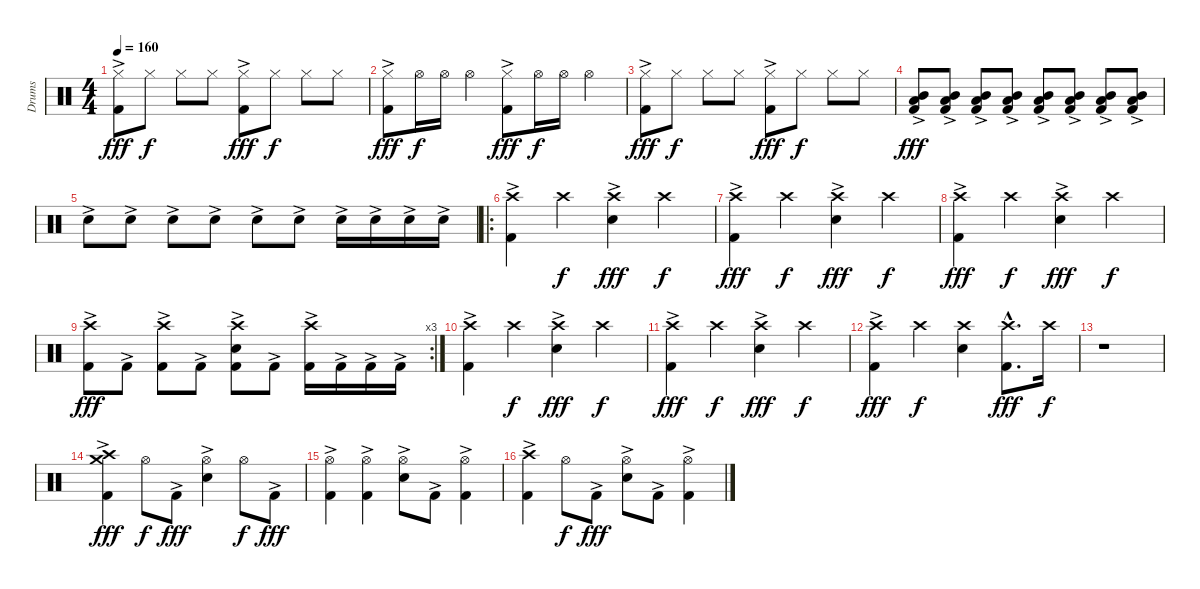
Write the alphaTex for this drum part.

\track ("Drums" "Drums") {instrument percussion}
\staff {score}
\articulation defaults
\ts (4 4)
\tempo 160
\clef neutral
\ks c
("Hi-Hat (closed)" "Kick (hit) 2"{ac}).8{dy fff} "Hi-Hat (closed)".8{dy f} "Hi-Hat (closed)".8 "Hi-Hat (closed)".8 ("Hi-Hat (closed)" "Kick (hit) 2"{ac}).8{dy fff} "Hi-Hat (closed)".8{dy f} "Hi-Hat (closed)".8 "Hi-Hat (closed)".8 |
("Hi-Hat (closed)" "Kick (hit) 2"{ac}).8{dy fff} "Hi-Hat (open)".16{dy f} "Hi-Hat (open)".16 "Hi-Hat (open)".4 ("Hi-Hat (closed)" "Kick (hit) 2"{ac}).8{dy fff} "Hi-Hat (open)".16{dy f} "Hi-Hat (open)".16 "Hi-Hat (open)".4 |
("Hi-Hat (closed)" "Kick (hit) 2"{ac}).8{dy fff} "Hi-Hat (closed)".8{dy f} "Hi-Hat (closed)".8 "Hi-Hat (closed)".8 ("Hi-Hat (closed)" "Kick (hit) 2"{ac}).8{dy fff} "Hi-Hat (closed)".8{dy f} "Hi-Hat (closed)".8 "Hi-Hat (closed)".8 |
("Mid Tom (hit)" "Low Tom (hit)" "Kick (hit) 2"{ac}).8{dy fff} ("Mid Tom (hit)" "Low Tom (hit)" "Kick (hit) 2"{ac}).8 ("Mid Tom (hit)" "Low Tom (hit)" "Kick (hit) 2"{ac}).8 ("Mid Tom (hit)" "Low Tom (hit)" "Kick (hit) 2"{ac}).8 ("Mid Tom (hit)" "Low Tom (hit)" "Kick (hit) 2"{ac}).8 ("Mid Tom (hit)" "Low Tom (hit)" "Kick (hit) 2"{ac}).8 ("Mid Tom (hit)" "Low Tom (hit)" "Kick (hit) 2"{ac}).8 ("Mid Tom (hit)" "Low Tom (hit)" "Kick (hit) 2"{ac}).8 |
"Snare (hit) 2"{ac}.8 "Snare (hit) 2"{ac}.8 "Snare (hit) 2"{ac}.8 "Snare (hit) 2"{ac}.8 "Snare (hit) 2"{ac}.8 "Snare (hit) 2"{ac}.8 "Snare (hit) 2"{ac}.16 "Snare (hit) 2"{ac}.16 "Snare (hit) 2"{ac}.16 "Snare (hit) 2"{ac}.16 |
\ro
("Crash high (hit)" "Kick (hit) 2"{ac}).4 "Crash high (hit)".4{dy f} ("Crash high (hit)" "Snare (hit) 2"{ac}).4{dy fff} "Crash high (hit)".4{dy f} |
("Crash high (hit)" "Kick (hit) 2"{ac}).4{dy fff} "Crash high (hit)".4{dy f} ("Crash high (hit)" "Snare (hit) 2"{ac}).4{dy fff} "Crash high (hit)".4{dy f} |
("Crash high (hit)" "Kick (hit) 2"{ac}).4{dy fff} "Crash high (hit)".4{dy f} ("Crash high (hit)" "Snare (hit) 2"{ac}).4{dy fff} "Crash high (hit)".4{dy f} |
\rc 3
("Crash high (hit)" "Kick (hit) 2"{ac}).8{dy fff} "Kick (hit) 2"{ac}.8 ("Crash high (hit)" "Kick (hit) 2"{ac}).8 "Kick (hit) 2"{ac}.8 ("Crash high (hit)" "Snare (hit) 2"{ac} "Kick (hit) 2"{ac}).8 "Kick (hit) 2"{ac}.8 ("Crash high (hit)" "Kick (hit) 2"{ac}).16 "Kick (hit) 2"{ac}.16 "Kick (hit) 2"{ac}.16 "Kick (hit) 2"{ac}.16 |
("Crash high (hit)" "Kick (hit) 2"{ac}).4 "Crash high (hit)".4{dy f} ("Crash high (hit)" "Snare (hit) 2"{ac}).4{dy fff} "Crash high (hit)".4{dy f} |
("Crash high (hit)" "Kick (hit) 2"{ac}).4{dy fff} "Crash high (hit)".4{dy f} ("Crash high (hit)" "Snare (hit) 2"{ac}).4{dy fff} "Crash high (hit)".4{dy f} |
("Crash high (hit)" "Kick (hit) 2"{ac}).4{dy fff} "Crash high (hit)".4{dy f} ("Crash high (hit)" "Snare (hit) 2").4 ("Crash high (hit)"{hac} "Kick (hit) 2"{hac}).8{d dy fff} "Crash high (hit)".16{dy f volume 4} |
r.1 |
("Crash high (hit)" "Crash medium (hit)" "Kick (hit) 2"{ac}).4{dy fff volume 15} "Hi-Hat (open)".8{dy f} "Kick (hit) 2"{ac}.8{dy fff} ("Hi-Hat (open)" "Snare (hit) 2"{ac}).4 "Hi-Hat (open)".8{dy f} "Kick (hit) 2"{ac}.8{dy fff} |
("Hi-Hat (open)" "Kick (hit) 2"{ac}).4 ("Hi-Hat (open)" "Kick (hit) 2"{ac}).4 ("Hi-Hat (open)" "Snare (hit) 2"{ac}).8 "Kick (hit) 2"{ac}.8 ("Hi-Hat (open)" "Kick (hit) 2"{ac}).4 |
("Crash high (hit)" "Kick (hit) 2"{ac}).4 "Hi-Hat (open)".8{dy f} "Kick (hit) 2"{ac}.8{dy fff} ("Hi-Hat (open)" "Snare (hit) 2"{ac}).8 "Kick (hit) 2"{ac}.8 ("Hi-Hat (open)" "Kick (hit) 2"{ac}).4
